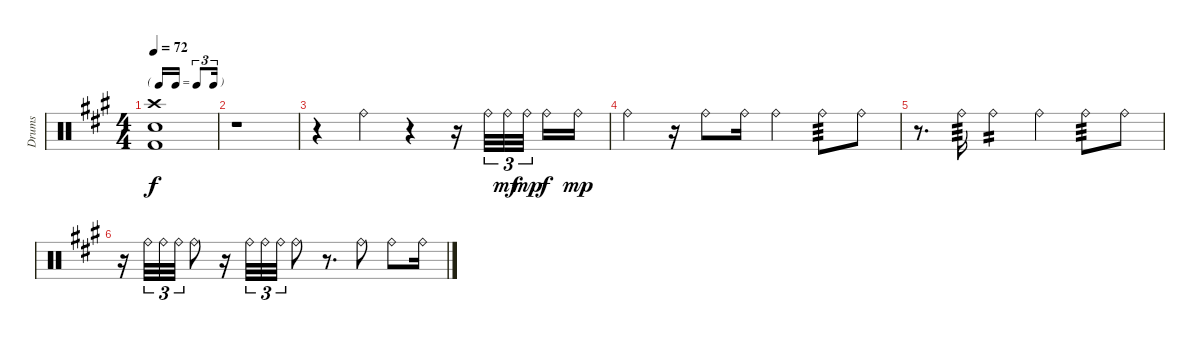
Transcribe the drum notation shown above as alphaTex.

\track ("Drums" "Drums") {instrument percussion}
\staff {score}
\articulation defaults
\ts (4 4)
\tf triplet16th
\tempo 72
\clef neutral
\ks a
("Crash high (hit)" "Snare (hit) 2" "Kick (hit) 2").1{dy f} |
r.1 |
r.4 "Ride (bell)".4 r.4 r.16 "Ride (bell)".32{tu (3 2)} "Ride (bell)".32{tu (3 2) dy mf} "Ride (bell)".32{tu (3 2) dy mp beam splitsecondary} "Ride (bell)".16{dy f} "Ride (bell)".16{dy mp} |
"Ride (bell)".4 r.16 "Ride (bell)".8 "Ride (bell)".16 "Ride (bell)".4 "Ride (bell)".8{tp 3} "Ride (bell)".8 |
r.8{d} "Ride (bell)".16{tp 3} "Ride (bell)".4{tp 2} "Ride (bell)".4 "Ride (bell)".8{tp 3} "Ride (bell)".8 |
r.16 "Ride (bell)".32{tu (3 2)} "Ride (bell)".32{tu (3 2)} "Ride (bell)".32{tu (3 2)} "Ride (bell)".8 r.16 "Ride (bell)".32{tu (3 2)} "Ride (bell)".32{tu (3 2)} "Ride (bell)".32{tu (3 2)} "Ride (bell)".8 r.8{d} "Ride (bell)".8 "Ride (bell)".8 "Ride (bell)".16
